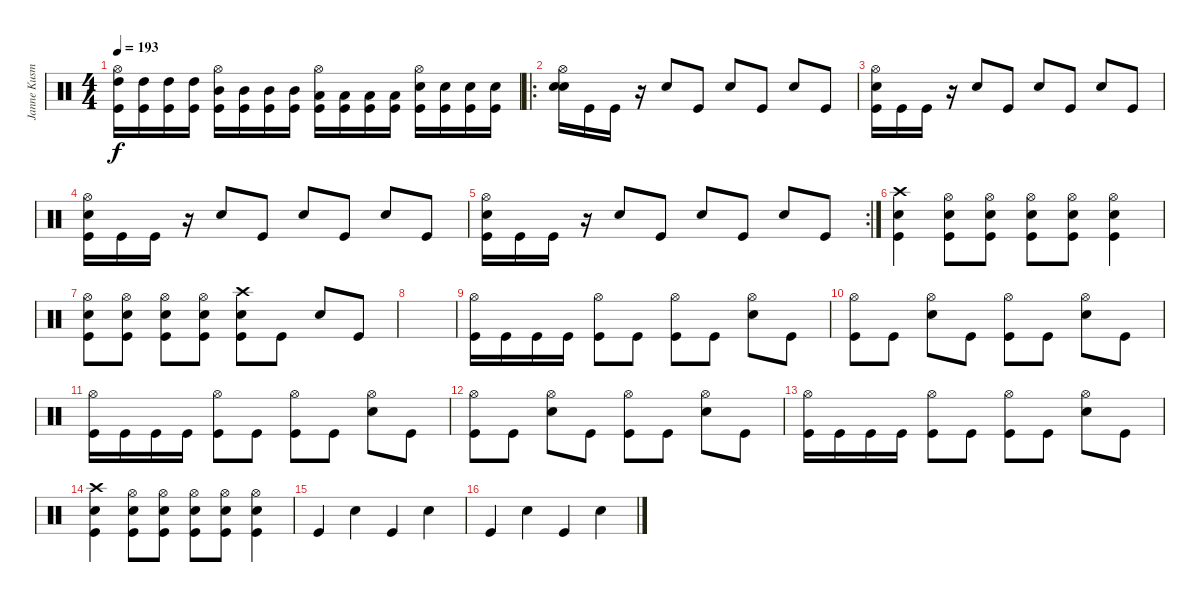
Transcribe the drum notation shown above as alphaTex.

\track ("Janne Kusmin " "Janne Kusm") {instrument percussion}
\staff {score}
\articulation defaults
\ts (4 4)
\tempo 193
\clef neutral
\ks c
("Hi-Hat (open)" "High Tom (hit)" "Kick (hit)").16{dy f} ("High Tom (hit)" "Kick (hit)").16 ("High Tom (hit)" "Kick (hit)").16 ("High Tom (hit)" "Kick (hit)").16 ("Hi-Hat (open)" "Mid Tom (hit)" "Kick (hit)").16 ("Mid Tom (hit)" "Kick (hit)").16 ("Mid Tom (hit)" "Kick (hit)").16 ("Mid Tom (hit)" "Kick (hit)").16 ("Hi-Hat (open)" "Low Tom (hit)" "Kick (hit)").16 ("Low Tom (hit)" "Kick (hit)").16 ("Low Tom (hit)" "Kick (hit)").16 ("Low Tom (hit)" "Kick (hit)").16 ("Hi-Hat (open)" "Snare (hit) 2" "Kick (hit)").16 ("Snare (hit) 2" "Kick (hit)").16 ("Snare (hit) 2" "Kick (hit)").16 ("Snare (hit) 2" "Kick (hit)").16 |
\ro
("Hi-Hat (open)" "Snare (hit) 2" "Snare (hit)").16 "Kick (hit)".16 "Kick (hit)".16 r.16 "Snare (hit) 2".8 "Kick (hit)".8 "Snare (hit) 2".8 "Kick (hit)".8 "Snare (hit) 2".8 "Kick (hit)".8 |
("Hi-Hat (open)" "Snare (hit) 2" "Kick (hit)").16 "Kick (hit)".16 "Kick (hit)".16 r.16 "Snare (hit) 2".8 "Kick (hit)".8 "Snare (hit) 2".8 "Kick (hit)".8 "Snare (hit) 2".8 "Kick (hit)".8 |
("Hi-Hat (open)" "Snare (hit) 2" "Kick (hit)").16 "Kick (hit)".16 "Kick (hit)".16 r.16 "Snare (hit) 2".8 "Kick (hit)".8 "Snare (hit) 2".8 "Kick (hit)".8 "Snare (hit) 2".8 "Kick (hit)".8 |
\rc 2
("Hi-Hat (open)" "Snare (hit) 2" "Kick (hit)").16 "Kick (hit)".16 "Kick (hit)".16 r.16 "Snare (hit) 2".8 "Kick (hit)".8 "Snare (hit) 2".8 "Kick (hit)".8 "Snare (hit) 2".8 "Kick (hit)".8 |
("Crash high (hit)" "Snare (hit) 2" "Kick (hit)").4 ("Hi-Hat (open)" "Snare (hit) 2" "Kick (hit)").8 ("Hi-Hat (open)" "Snare (hit) 2" "Kick (hit)").8 ("Hi-Hat (open)" "Snare (hit) 2" "Kick (hit)").8 ("Hi-Hat (open)" "Snare (hit) 2" "Kick (hit)").8 ("Hi-Hat (open)" "Snare (hit) 2" "Kick (hit)").4 |
("Hi-Hat (open)" "Snare (hit) 2" "Kick (hit)").8 ("Hi-Hat (open)" "Snare (hit) 2" "Kick (hit)").8 ("Hi-Hat (open)" "Snare (hit) 2" "Kick (hit)").8 ("Hi-Hat (open)" "Snare (hit) 2" "Kick (hit)").8 ("Crash high (hit)" "Snare (hit) 2" "Kick (hit)").8 "Kick (hit)".8 "Snare (hit) 2".8 "Kick (hit)".8 |
|
("Hi-Hat (open)" "Kick (hit)").16 "Kick (hit)".16 "Kick (hit)".16 "Kick (hit)".16 ("Hi-Hat (open)" "Kick (hit)").8 "Kick (hit)".8 ("Hi-Hat (open)" "Kick (hit)").8 "Kick (hit)".8 ("Hi-Hat (open)" "Snare (hit) 2").8 "Kick (hit)".8 |
("Hi-Hat (open)" "Kick (hit)").8 "Kick (hit)".8 ("Hi-Hat (open)" "Snare (hit) 2").8 "Kick (hit)".8 ("Hi-Hat (open)" "Kick (hit)").8 "Kick (hit)".8 ("Hi-Hat (open)" "Snare (hit) 2").8 "Kick (hit)".8 |
("Hi-Hat (open)" "Kick (hit)").16 "Kick (hit)".16 "Kick (hit)".16 "Kick (hit)".16 ("Hi-Hat (open)" "Kick (hit)").8 "Kick (hit)".8 ("Hi-Hat (open)" "Kick (hit)").8 "Kick (hit)".8 ("Hi-Hat (open)" "Snare (hit) 2").8 "Kick (hit)".8 |
("Hi-Hat (open)" "Kick (hit)").8 "Kick (hit)".8 ("Hi-Hat (open)" "Snare (hit) 2").8 "Kick (hit)".8 ("Hi-Hat (open)" "Kick (hit)").8 "Kick (hit)".8 ("Hi-Hat (open)" "Snare (hit) 2").8 "Kick (hit)".8 |
("Hi-Hat (open)" "Kick (hit)").16 "Kick (hit)".16 "Kick (hit)".16 "Kick (hit)".16 ("Hi-Hat (open)" "Kick (hit)").8 "Kick (hit)".8 ("Hi-Hat (open)" "Kick (hit)").8 "Kick (hit)".8 ("Hi-Hat (open)" "Snare (hit) 2").8 "Kick (hit)".8 |
("Crash high (hit)" "Snare (hit) 2" "Kick (hit)").4 ("Hi-Hat (open)" "Snare (hit) 2" "Kick (hit)").8 ("Hi-Hat (open)" "Snare (hit) 2" "Kick (hit)").8 ("Hi-Hat (open)" "Snare (hit) 2" "Kick (hit)").8 ("Hi-Hat (open)" "Snare (hit) 2" "Kick (hit)").8 ("Hi-Hat (open)" "Snare (hit) 2" "Kick (hit)").4 |
"Kick (hit)".4 "Snare (hit) 2".4 "Kick (hit)".4 "Snare (hit) 2".4 |
"Kick (hit)".4 "Snare (hit) 2".4 "Kick (hit)".4 "Snare (hit) 2".4
